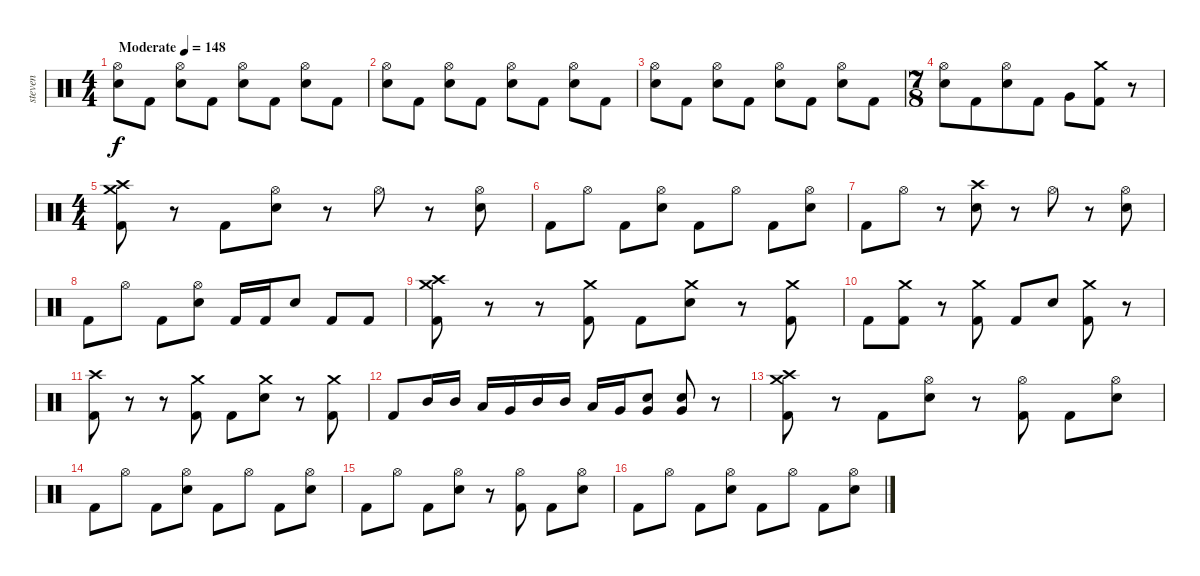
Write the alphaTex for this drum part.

\track ("steven" "steven") {instrument percussion}
\staff {score}
\articulation defaults
\ts (4 4)
\tempo (148 "Moderate")
\clef neutral
\ks c
("Hi-Hat (open)" "Electric Snare (hit)").8{dy f} "Kick (hit) 2".8 ("Hi-Hat (open)" "Electric Snare (hit)").8 "Kick (hit) 2".8 ("Hi-Hat (open)" "Electric Snare (hit)").8 "Kick (hit) 2".8 ("Hi-Hat (open)" "Electric Snare (hit)").8 "Kick (hit) 2".8 |
("Hi-Hat (open)" "Electric Snare (hit)").8 "Kick (hit) 2".8 ("Hi-Hat (open)" "Electric Snare (hit)").8 "Kick (hit) 2".8 ("Hi-Hat (open)" "Electric Snare (hit)").8 "Kick (hit) 2".8 ("Hi-Hat (open)" "Electric Snare (hit)").8 "Kick (hit) 2".8 |
("Hi-Hat (open)" "Electric Snare (hit)").8 "Kick (hit) 2".8 ("Hi-Hat (open)" "Electric Snare (hit)").8 "Kick (hit) 2".8 ("Hi-Hat (open)" "Electric Snare (hit)").8 "Kick (hit) 2".8 ("Hi-Hat (open)" "Electric Snare (hit)").8 "Kick (hit) 2".8 |
\ts (7 8)
("Hi-Hat (open)" "Electric Snare (hit)").8 "Kick (hit) 2".8 ("Hi-Hat (open)" "Electric Snare (hit)").8 "Kick (hit) 2".8 "Very Low Tom (hit)".8 ("Crash medium (hit)" "Kick (hit) 2").8 r.8 |
\ts (4 4)
("Crash medium (hit)" "Crash high (hit)" "Kick (hit) 2").8 r.8 "Kick (hit) 2".8 ("Hi-Hat (open)" "Electric Snare (hit)").8 r.8 "Hi-Hat (open)".8 r.8 ("Hi-Hat (open)" "Electric Snare (hit)").8 |
"Kick (hit) 2".8 "Hi-Hat (open)".8 "Kick (hit) 2".8 ("Hi-Hat (open)" "Electric Snare (hit)").8 "Kick (hit) 2".8 "Hi-Hat (open)".8 "Kick (hit) 2".8 ("Hi-Hat (open)" "Electric Snare (hit)").8 |
"Kick (hit) 2".8 "Hi-Hat (open)".8 r.8 ("Crash high (hit)" "Electric Snare (hit)").8 r.8 "Hi-Hat (open)".8 r.8 ("Hi-Hat (open)" "Electric Snare (hit)").8 |
"Kick (hit) 2".8 "Hi-Hat (open)".8 "Kick (hit) 2".8 ("Hi-Hat (open)" "Electric Snare (hit)").8 "Kick (hit) 2".16 "Kick (hit) 2".16 "Electric Snare (hit)".8 "Kick (hit) 2".8 "Kick (hit) 2".8 |
("Crash medium (hit)" "Crash high (hit)" "Kick (hit) 2").8 r.8 r.8 ("Crash medium (hit)" "Kick (hit) 2").8 "Kick (hit) 2".8 ("Crash medium (hit)" "Electric Snare (hit)").8 r.8 ("Crash medium (hit)" "Kick (hit) 2").8 |
"Kick (hit) 2".8 ("Crash medium (hit)" "Kick (hit) 2").8 r.8 ("Crash medium (hit)" "Kick (hit) 2").8 "Kick (hit) 2".8 "Electric Snare (hit)".8 ("Crash medium (hit)" "Kick (hit) 2").8 r.8 |
("Crash high (hit)" "Kick (hit) 2").8 r.8 r.8 ("Crash medium (hit)" "Kick (hit) 2").8 "Kick (hit) 2".8 ("Crash medium (hit)" "Electric Snare (hit)").8 r.8 ("Crash medium (hit)" "Kick (hit) 2").8 |
"Kick (hit) 2".8 "Mid Tom (hit)".16 "Mid Tom (hit)".16 "Low Tom (hit)".16 "Very Low Tom (hit)".16 "Mid Tom (hit)".16 "Mid Tom (hit)".16 "Low Tom (hit)".16 "Very Low Tom (hit)".16 ("Electric Snare (hit)" "Very Low Tom (hit)").8 ("Electric Snare (hit)" "Very Low Tom (hit)").8 r.8 |
("Crash medium (hit)" "Crash high (hit)" "Kick (hit) 2").8 r.8 "Kick (hit) 2".8 ("Hi-Hat (open)" "Electric Snare (hit)").8 r.8 ("Hi-Hat (open)" "Kick (hit) 2").8 "Kick (hit) 2".8 ("Hi-Hat (open)" "Electric Snare (hit)").8 |
"Kick (hit) 2".8 "Hi-Hat (open)".8 "Kick (hit) 2".8 ("Hi-Hat (open)" "Electric Snare (hit)").8 "Kick (hit) 2".8 "Hi-Hat (open)".8 "Kick (hit) 2".8 ("Hi-Hat (open)" "Electric Snare (hit)").8 |
"Kick (hit) 2".8 "Hi-Hat (open)".8 "Kick (hit) 2".8 ("Hi-Hat (open)" "Electric Snare (hit)").8 r.8 ("Hi-Hat (open)" "Kick (hit) 2").8 "Kick (hit) 2".8 ("Hi-Hat (open)" "Electric Snare (hit)").8 |
"Kick (hit) 2".8 "Hi-Hat (open)".8 "Kick (hit) 2".8 ("Hi-Hat (open)" "Electric Snare (hit)").8 "Kick (hit) 2".8 "Hi-Hat (open)".8 "Kick (hit) 2".8 ("Hi-Hat (open)" "Electric Snare (hit)").8
